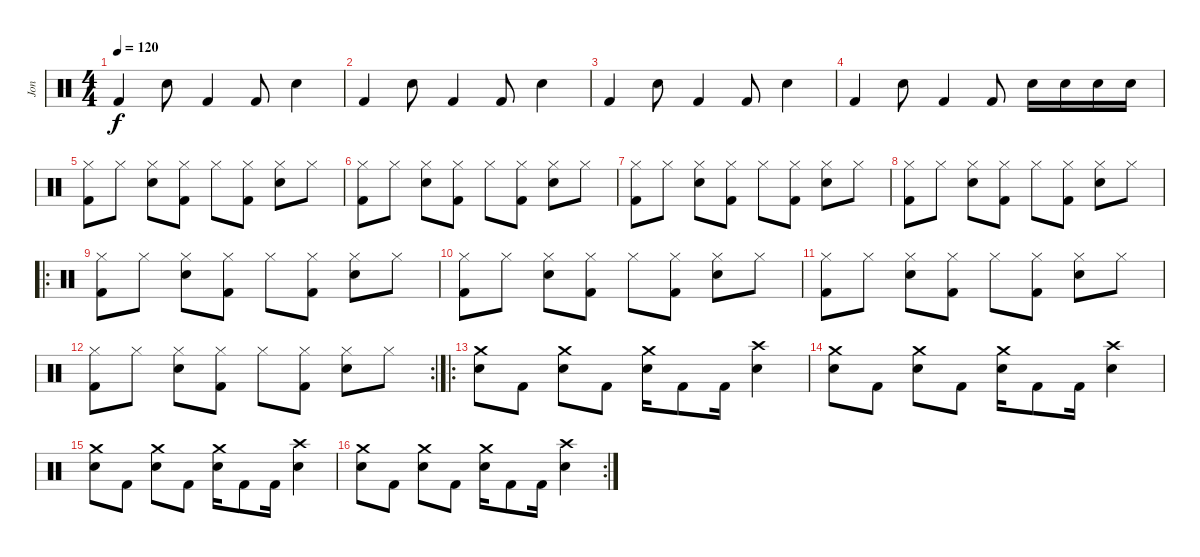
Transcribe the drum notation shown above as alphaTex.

\track ("Jon" "Jon") {instrument percussion}
\staff {score}
\articulation defaults
\ts (4 4)
\tempo 120
\clef neutral
\ks c "Kick (hit) 2".4{dy f} "Snare (hit) 2".8 "Kick (hit) 2".4 "Kick (hit) 2".8 "Snare (hit) 2".4
|
"Kick (hit) 2".4 "Snare (hit) 2".8 "Kick (hit) 2".4 "Kick (hit) 2".8 "Snare (hit) 2".4 |
"Kick (hit) 2".4 "Snare (hit) 2".8 "Kick (hit) 2".4 "Kick (hit) 2".8 "Snare (hit) 2".4 |
"Kick (hit) 2".4 "Snare (hit) 2".8 "Kick (hit) 2".4 "Kick (hit) 2".8 "Snare (hit) 2".16 "Snare (hit) 2".16 "Snare (hit) 2".16 "Snare (hit) 2".16 |
("Hi-Hat (closed)" "Kick (hit) 2").8 "Hi-Hat (closed)".8 ("Hi-Hat (closed)" "Snare (hit) 2").8 ("Hi-Hat (closed)" "Kick (hit) 2").8 "Hi-Hat (closed)".8 ("Hi-Hat (closed)" "Kick (hit) 2").8 ("Hi-Hat (closed)" "Snare (hit) 2").8 "Hi-Hat (closed)".8 |
("Hi-Hat (closed)" "Kick (hit) 2").8 "Hi-Hat (closed)".8 ("Hi-Hat (closed)" "Snare (hit) 2").8 ("Hi-Hat (closed)" "Kick (hit) 2").8 "Hi-Hat (closed)".8 ("Hi-Hat (closed)" "Kick (hit) 2").8 ("Hi-Hat (closed)" "Snare (hit) 2").8 "Hi-Hat (closed)".8 |
("Hi-Hat (closed)" "Kick (hit) 2").8 "Hi-Hat (closed)".8 ("Hi-Hat (closed)" "Snare (hit) 2").8 ("Hi-Hat (closed)" "Kick (hit) 2").8 "Hi-Hat (closed)".8 ("Hi-Hat (closed)" "Kick (hit) 2").8 ("Hi-Hat (closed)" "Snare (hit) 2").8 "Hi-Hat (closed)".8 |
("Hi-Hat (closed)" "Kick (hit) 2").8 "Hi-Hat (closed)".8 ("Hi-Hat (closed)" "Snare (hit) 2").8 ("Hi-Hat (closed)" "Kick (hit) 2").8 "Hi-Hat (closed)".8 ("Hi-Hat (closed)" "Kick (hit) 2").8 ("Hi-Hat (closed)" "Snare (hit) 2").8 "Hi-Hat (closed)".8 |
\ro
("Hi-Hat (closed)" "Kick (hit) 2").8 "Hi-Hat (closed)".8 ("Hi-Hat (closed)" "Snare (hit) 2").8 ("Hi-Hat (closed)" "Kick (hit) 2").8 "Hi-Hat (closed)".8 ("Hi-Hat (closed)" "Kick (hit) 2").8 ("Hi-Hat (closed)" "Snare (hit) 2").8 "Hi-Hat (closed)".8 |
("Hi-Hat (closed)" "Kick (hit) 2").8 "Hi-Hat (closed)".8 ("Hi-Hat (closed)" "Snare (hit) 2").8 ("Hi-Hat (closed)" "Kick (hit) 2").8 "Hi-Hat (closed)".8 ("Hi-Hat (closed)" "Kick (hit) 2").8 ("Hi-Hat (closed)" "Snare (hit) 2").8 "Hi-Hat (closed)".8 |
("Hi-Hat (closed)" "Kick (hit) 2").8 "Hi-Hat (closed)".8 ("Hi-Hat (closed)" "Snare (hit) 2").8 ("Hi-Hat (closed)" "Kick (hit) 2").8 "Hi-Hat (closed)".8 ("Hi-Hat (closed)" "Kick (hit) 2").8 ("Hi-Hat (closed)" "Snare (hit) 2").8 "Hi-Hat (closed)".8 |
\rc 2
("Hi-Hat (closed)" "Kick (hit) 2").8 "Hi-Hat (closed)".8 ("Hi-Hat (closed)" "Snare (hit) 2").8 ("Hi-Hat (closed)" "Kick (hit) 2").8 "Hi-Hat (closed)".8 ("Hi-Hat (closed)" "Kick (hit) 2").8 ("Hi-Hat (closed)" "Snare (hit) 2").8 "Hi-Hat (closed)".8 |
\ro
("Crash medium (hit)" "Snare (hit) 2").8 "Kick (hit) 2".8 ("Crash medium (hit)" "Snare (hit) 2").8 "Kick (hit) 2".8 ("Crash medium (hit)" "Snare (hit) 2").16 "Kick (hit) 2".8 "Kick (hit) 2".16 ("Crash high (hit)" "Snare (hit) 2").4 |
("Crash medium (hit)" "Snare (hit) 2").8 "Kick (hit) 2".8 ("Crash medium (hit)" "Snare (hit) 2").8 "Kick (hit) 2".8 ("Crash medium (hit)" "Snare (hit) 2").16 "Kick (hit) 2".8 "Kick (hit) 2".16 ("Crash high (hit)" "Snare (hit) 2").4 |
("Crash medium (hit)" "Snare (hit) 2").8 "Kick (hit) 2".8 ("Crash medium (hit)" "Snare (hit) 2").8 "Kick (hit) 2".8 ("Crash medium (hit)" "Snare (hit) 2").16 "Kick (hit) 2".8 "Kick (hit) 2".16 ("Crash high (hit)" "Snare (hit) 2").4 |
\rc 2
("Crash medium (hit)" "Snare (hit) 2").8 "Kick (hit) 2".8 ("Crash medium (hit)" "Snare (hit) 2").8 "Kick (hit) 2".8 ("Crash medium (hit)" "Snare (hit) 2").16 "Kick (hit) 2".8 "Kick (hit) 2".16 ("Crash high (hit)" "Snare (hit) 2").4
